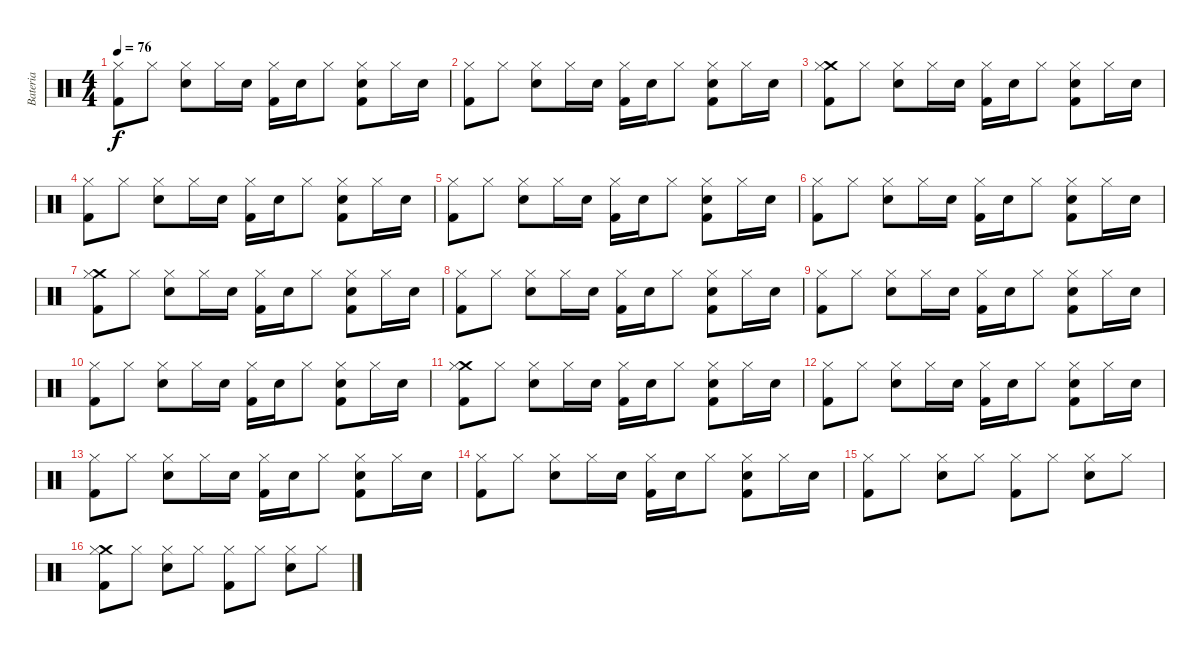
\track ("Bateria" "Bateria") {instrument percussion}
\staff {score}
\articulation defaults
\ts (4 4)
\tempo 76
\clef neutral
\ks c
("Hi-Hat (closed)" "Kick (hit) 2").8{dy f} "Hi-Hat (closed)".8 ("Snare (hit) 2" "Hi-Hat (closed)").8 "Hi-Hat (closed)".16 "Snare (hit) 2".16 ("Hi-Hat (closed)" "Kick (hit) 2").16 "Snare (hit) 2".16 "Hi-Hat (closed)".8 ("Snare (hit) 2" "Hi-Hat (closed)" "Kick (hit) 2").8 "Hi-Hat (closed)".16 "Snare (hit) 2".16 |
("Hi-Hat (closed)" "Kick (hit) 2").8 "Hi-Hat (closed)".8 ("Snare (hit) 2" "Hi-Hat (closed)").8 "Hi-Hat (closed)".16 "Snare (hit) 2".16 ("Hi-Hat (closed)" "Kick (hit) 2").16 "Snare (hit) 2".16 "Hi-Hat (closed)".8 ("Snare (hit) 2" "Hi-Hat (closed)" "Kick (hit) 2").8 "Hi-Hat (closed)".16 "Snare (hit) 2".16 |
("Crash medium (hit)" "Hi-Hat (closed)" "Kick (hit) 2").8 "Hi-Hat (closed)".8 ("Snare (hit) 2" "Hi-Hat (closed)").8 "Hi-Hat (closed)".16 "Snare (hit) 2".16 ("Hi-Hat (closed)" "Kick (hit) 2").16 "Snare (hit) 2".16 "Hi-Hat (closed)".8 ("Snare (hit) 2" "Hi-Hat (closed)" "Kick (hit) 2").8 "Hi-Hat (closed)".16 "Snare (hit) 2".16 |
("Hi-Hat (closed)" "Kick (hit) 2").8 "Hi-Hat (closed)".8 ("Snare (hit) 2" "Hi-Hat (closed)").8 "Hi-Hat (closed)".16 "Snare (hit) 2".16 ("Hi-Hat (closed)" "Kick (hit) 2").16 "Snare (hit) 2".16 "Hi-Hat (closed)".8 ("Snare (hit) 2" "Hi-Hat (closed)" "Kick (hit) 2").8 "Hi-Hat (closed)".16 "Snare (hit) 2".16 |
("Hi-Hat (closed)" "Kick (hit) 2").8 "Hi-Hat (closed)".8 ("Snare (hit) 2" "Hi-Hat (closed)").8 "Hi-Hat (closed)".16 "Snare (hit) 2".16 ("Hi-Hat (closed)" "Kick (hit) 2").16 "Snare (hit) 2".16 "Hi-Hat (closed)".8 ("Snare (hit) 2" "Hi-Hat (closed)" "Kick (hit) 2").8 "Hi-Hat (closed)".16 "Snare (hit) 2".16 |
("Hi-Hat (closed)" "Kick (hit) 2").8 "Hi-Hat (closed)".8 ("Snare (hit) 2" "Hi-Hat (closed)").8 "Hi-Hat (closed)".16 "Snare (hit) 2".16 ("Hi-Hat (closed)" "Kick (hit) 2").16 "Snare (hit) 2".16 "Hi-Hat (closed)".8 ("Snare (hit) 2" "Hi-Hat (closed)" "Kick (hit) 2").8 "Hi-Hat (closed)".16 "Snare (hit) 2".16 |
("Crash medium (hit)" "Hi-Hat (closed)" "Kick (hit) 2").8 "Hi-Hat (closed)".8 ("Snare (hit) 2" "Hi-Hat (closed)").8 "Hi-Hat (closed)".16 "Snare (hit) 2".16 ("Hi-Hat (closed)" "Kick (hit) 2").16 "Snare (hit) 2".16 "Hi-Hat (closed)".8 ("Snare (hit) 2" "Hi-Hat (closed)" "Kick (hit) 2").8 "Hi-Hat (closed)".16 "Snare (hit) 2".16 |
("Hi-Hat (closed)" "Kick (hit) 2").8 "Hi-Hat (closed)".8 ("Snare (hit) 2" "Hi-Hat (closed)").8 "Hi-Hat (closed)".16 "Snare (hit) 2".16 ("Hi-Hat (closed)" "Kick (hit) 2").16 "Snare (hit) 2".16 "Hi-Hat (closed)".8 ("Snare (hit) 2" "Hi-Hat (closed)" "Kick (hit) 2").8 "Hi-Hat (closed)".16 "Snare (hit) 2".16 |
("Hi-Hat (closed)" "Kick (hit) 2").8 "Hi-Hat (closed)".8 ("Snare (hit) 2" "Hi-Hat (closed)").8 "Hi-Hat (closed)".16 "Snare (hit) 2".16 ("Hi-Hat (closed)" "Kick (hit) 2").16 "Snare (hit) 2".16 "Hi-Hat (closed)".8 ("Snare (hit) 2" "Hi-Hat (closed)" "Kick (hit) 2").8 "Hi-Hat (closed)".16 "Snare (hit) 2".16 |
("Hi-Hat (closed)" "Kick (hit) 2").8 "Hi-Hat (closed)".8 ("Snare (hit) 2" "Hi-Hat (closed)").8 "Hi-Hat (closed)".16 "Snare (hit) 2".16 ("Hi-Hat (closed)" "Kick (hit) 2").16 "Snare (hit) 2".16 "Hi-Hat (closed)".8 ("Snare (hit) 2" "Hi-Hat (closed)" "Kick (hit) 2").8 "Hi-Hat (closed)".16 "Snare (hit) 2".16 |
("Crash medium (hit)" "Hi-Hat (closed)" "Kick (hit) 2").8 "Hi-Hat (closed)".8 ("Snare (hit) 2" "Hi-Hat (closed)").8 "Hi-Hat (closed)".16 "Snare (hit) 2".16 ("Hi-Hat (closed)" "Kick (hit) 2").16 "Snare (hit) 2".16 "Hi-Hat (closed)".8 ("Snare (hit) 2" "Hi-Hat (closed)" "Kick (hit) 2").8 "Hi-Hat (closed)".16 "Snare (hit) 2".16 |
("Hi-Hat (closed)" "Kick (hit) 2").8 "Hi-Hat (closed)".8 ("Snare (hit) 2" "Hi-Hat (closed)").8 "Hi-Hat (closed)".16 "Snare (hit) 2".16 ("Hi-Hat (closed)" "Kick (hit) 2").16 "Snare (hit) 2".16 "Hi-Hat (closed)".8 ("Snare (hit) 2" "Hi-Hat (closed)" "Kick (hit) 2").8 "Hi-Hat (closed)".16 "Snare (hit) 2".16 |
("Hi-Hat (closed)" "Kick (hit) 2").8 "Hi-Hat (closed)".8 ("Snare (hit) 2" "Hi-Hat (closed)").8 "Hi-Hat (closed)".16 "Snare (hit) 2".16 ("Hi-Hat (closed)" "Kick (hit) 2").16 "Snare (hit) 2".16 "Hi-Hat (closed)".8 ("Snare (hit) 2" "Hi-Hat (closed)" "Kick (hit) 2").8 "Hi-Hat (closed)".16 "Snare (hit) 2".16 |
("Hi-Hat (closed)" "Kick (hit) 2").8 "Hi-Hat (closed)".8 ("Snare (hit) 2" "Hi-Hat (closed)").8 "Hi-Hat (closed)".16 "Snare (hit) 2".16 ("Hi-Hat (closed)" "Kick (hit) 2").16 "Snare (hit) 2".16 "Hi-Hat (closed)".8 ("Snare (hit) 2" "Hi-Hat (closed)" "Kick (hit) 2").8 "Hi-Hat (closed)".16 "Snare (hit) 2".16 |
("Hi-Hat (closed)" "Kick (hit) 2").8 "Hi-Hat (closed)".8 ("Snare (hit) 2" "Hi-Hat (closed)").8 "Hi-Hat (closed)".8 ("Hi-Hat (closed)" "Kick (hit) 2").8 "Hi-Hat (closed)".8 ("Snare (hit) 2" "Hi-Hat (closed)").8 "Hi-Hat (closed)".8 |
("Crash medium (hit)" "Hi-Hat (closed)" "Kick (hit) 2").8 "Hi-Hat (closed)".8 ("Snare (hit) 2" "Hi-Hat (closed)").8 "Hi-Hat (closed)".8 ("Hi-Hat (closed)" "Kick (hit) 2").8 "Hi-Hat (closed)".8 ("Snare (hit) 2" "Hi-Hat (closed)").8 "Hi-Hat (closed)".8
